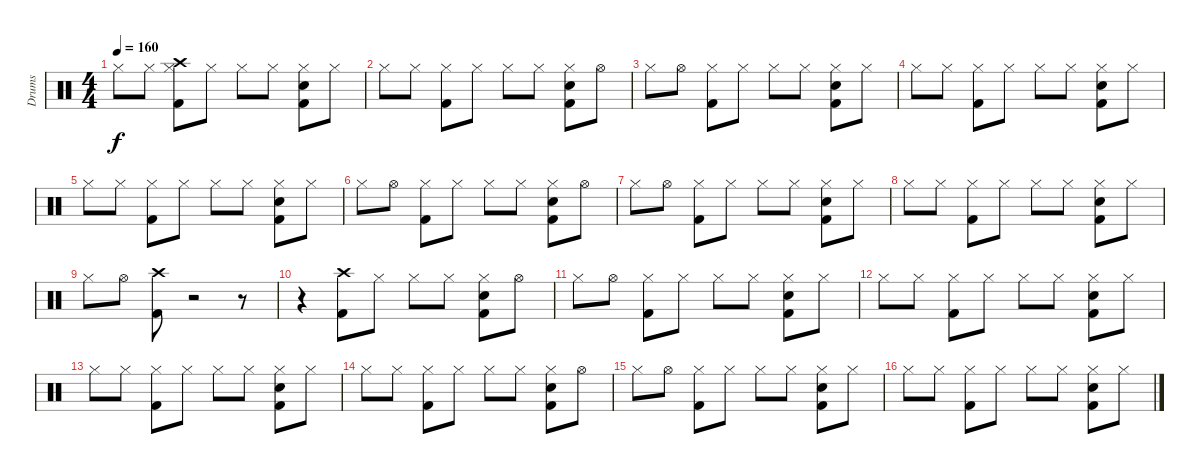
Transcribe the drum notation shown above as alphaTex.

\track ("Drums" "Drums") {instrument percussion}
\staff {score}
\articulation defaults
\ts (4 4)
\tempo 160
\clef neutral
\ks c "Hi-Hat (closed)".8{dy f} "Hi-Hat (closed)".8
("Crash high (hit)" "Kick (hit) 2" "Hi-Hat (closed)").8 "Hi-Hat (closed)".8 "Hi-Hat (closed)".8 "Hi-Hat (closed)".8 ("Snare (hit) 2" "Kick (hit) 2" "Hi-Hat (closed)").8 "Hi-Hat (closed)".8 |
"Hi-Hat (closed)".8 "Hi-Hat (closed)".8 ("Kick (hit) 2" "Hi-Hat (closed)").8 "Hi-Hat (closed)".8 "Hi-Hat (closed)".8 "Hi-Hat (closed)".8 ("Snare (hit) 2" "Kick (hit) 2" "Hi-Hat (closed)").8 "Hi-Hat (open)".8 |
"Hi-Hat (closed)".8 "Hi-Hat (open)".8 ("Kick (hit) 2" "Hi-Hat (closed)").8 "Hi-Hat (closed)".8 "Hi-Hat (closed)".8 "Hi-Hat (closed)".8 ("Snare (hit) 2" "Kick (hit) 2" "Hi-Hat (closed)").8 "Hi-Hat (closed)".8 |
"Hi-Hat (closed)".8 "Hi-Hat (closed)".8 ("Kick (hit) 2" "Hi-Hat (closed)").8 "Hi-Hat (closed)".8 "Hi-Hat (closed)".8 "Hi-Hat (closed)".8 ("Snare (hit) 2" "Kick (hit) 2" "Hi-Hat (closed)").8 "Hi-Hat (closed)".8 |
"Hi-Hat (closed)".8 "Hi-Hat (closed)".8 ("Kick (hit) 2" "Hi-Hat (closed)").8 "Hi-Hat (closed)".8 "Hi-Hat (closed)".8 "Hi-Hat (closed)".8 ("Snare (hit) 2" "Kick (hit) 2" "Hi-Hat (closed)").8 "Hi-Hat (closed)".8 |
"Hi-Hat (closed)".8 "Hi-Hat (open)".8 ("Kick (hit) 2" "Hi-Hat (closed)").8 "Hi-Hat (closed)".8 "Hi-Hat (closed)".8 "Hi-Hat (closed)".8 ("Snare (hit) 2" "Kick (hit) 2" "Hi-Hat (closed)").8 "Hi-Hat (open)".8 |
"Hi-Hat (closed)".8 "Hi-Hat (open)".8 ("Kick (hit) 2" "Hi-Hat (closed)").8 "Hi-Hat (closed)".8 "Hi-Hat (closed)".8 "Hi-Hat (closed)".8 ("Snare (hit) 2" "Kick (hit) 2" "Hi-Hat (closed)").8 "Hi-Hat (closed)".8 |
"Hi-Hat (closed)".8 "Hi-Hat (closed)".8 ("Kick (hit) 2" "Hi-Hat (closed)").8 "Hi-Hat (closed)".8 "Hi-Hat (closed)".8 "Hi-Hat (closed)".8 ("Snare (hit) 2" "Kick (hit) 2" "Hi-Hat (closed)").8 "Hi-Hat (closed)".8 |
"Hi-Hat (closed)".8 "Hi-Hat (open)".8 ("Crash high (hit)" "Kick (hit) 2").8 r.2 r.8 |
r.4 ("Crash high (hit)" "Kick (hit) 2").8 "Hi-Hat (closed)".8 "Hi-Hat (closed)".8 "Hi-Hat (closed)".8 ("Snare (hit) 2" "Kick (hit) 2" "Hi-Hat (closed)").8 "Hi-Hat (open)".8 |
"Hi-Hat (closed)".8 "Hi-Hat (open)".8 ("Kick (hit) 2" "Hi-Hat (closed)").8 "Hi-Hat (closed)".8 "Hi-Hat (closed)".8 "Hi-Hat (closed)".8 ("Snare (hit) 2" "Kick (hit) 2" "Hi-Hat (closed)").8 "Hi-Hat (closed)".8 |
"Hi-Hat (closed)".8 "Hi-Hat (closed)".8 ("Kick (hit) 2" "Hi-Hat (closed)").8 "Hi-Hat (closed)".8 "Hi-Hat (closed)".8 "Hi-Hat (closed)".8 ("Snare (hit) 2" "Kick (hit) 2" "Hi-Hat (closed)").8 "Hi-Hat (closed)".8 |
"Hi-Hat (closed)".8 "Hi-Hat (closed)".8 ("Kick (hit) 2" "Hi-Hat (closed)").8 "Hi-Hat (closed)".8 "Hi-Hat (closed)".8 "Hi-Hat (closed)".8 ("Snare (hit) 2" "Kick (hit) 2" "Hi-Hat (closed)").8 "Hi-Hat (closed)".8 |
"Hi-Hat (closed)".8 "Hi-Hat (closed)".8 ("Kick (hit) 2" "Hi-Hat (closed)").8 "Hi-Hat (closed)".8 "Hi-Hat (closed)".8 "Hi-Hat (closed)".8 ("Snare (hit) 2" "Kick (hit) 2" "Hi-Hat (closed)").8 "Hi-Hat (open)".8 |
"Hi-Hat (closed)".8 "Hi-Hat (open)".8 ("Kick (hit) 2" "Hi-Hat (closed)").8 "Hi-Hat (closed)".8 "Hi-Hat (closed)".8 "Hi-Hat (closed)".8 ("Snare (hit) 2" "Kick (hit) 2" "Hi-Hat (closed)").8 "Hi-Hat (closed)".8 |
"Hi-Hat (closed)".8 "Hi-Hat (closed)".8 ("Kick (hit) 2" "Hi-Hat (closed)").8 "Hi-Hat (closed)".8 "Hi-Hat (closed)".8 "Hi-Hat (closed)".8 ("Snare (hit) 2" "Kick (hit) 2" "Hi-Hat (closed)").8 "Hi-Hat (closed)".8
